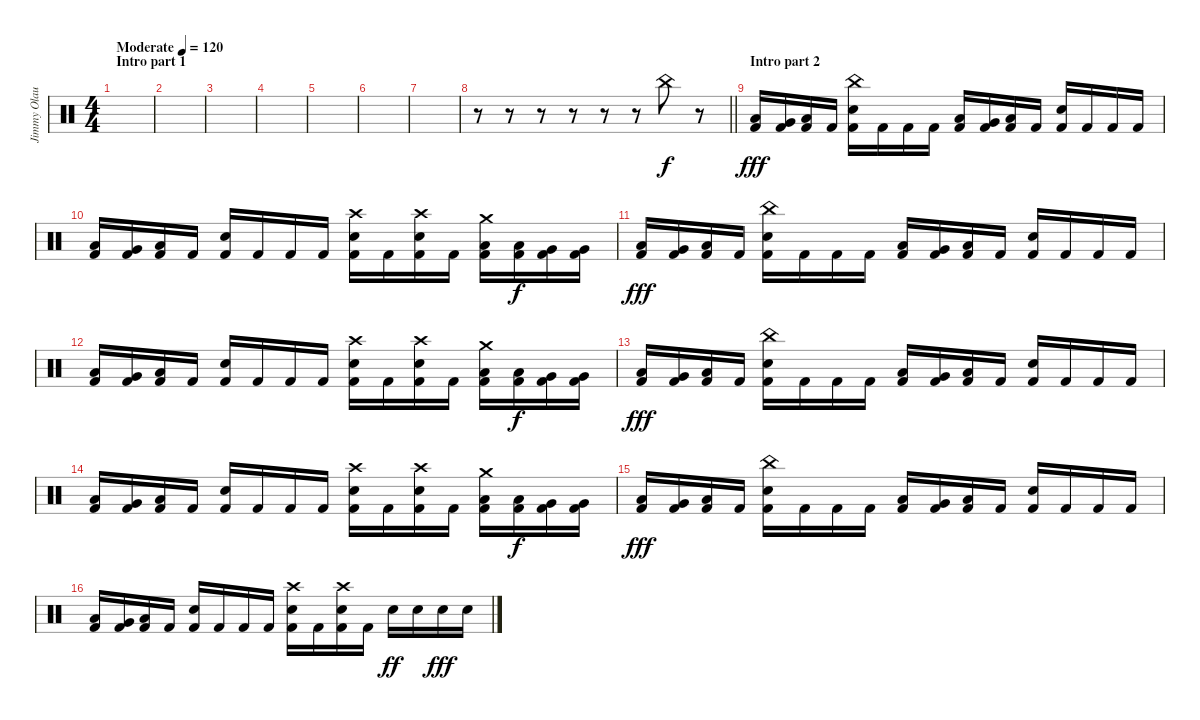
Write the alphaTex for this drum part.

\track ("Jimmy Olausson" "Jimmy Olau") {instrument percussion}
\staff {score}
\articulation defaults
\ts (4 4)
\section ("" "Intro part 1")
\tempo (120 "Moderate")
\clef neutral
\ks c
|
|
|
|
|
|
|
\barLineRight lightlight
r.8 r.8 r.8 r.8 r.8 r.8 "China (hit)".8 r.8 |
\section ("" "Intro part 2")
("Low Tom (hit)" "Kick (hit) 2").16{dy fff} ("Very Low Tom (hit)" "Kick (hit) 2").16 ("Low Floor Tom (hit)" "Kick (hit) 2").16 "Kick (hit) 2".16 ("China (hit)" "Snare (hit) 2" "Kick (hit) 2").16 "Kick (hit) 2".16 "Kick (hit) 2".16 "Kick (hit) 2".16 ("Low Tom (hit)" "Kick (hit) 2").16 ("Very Low Tom (hit)" "Kick (hit) 2").16 ("Low Floor Tom (hit)" "Kick (hit) 2").16 "Kick (hit) 2".16 ("Snare (hit) 2" "Kick (hit) 2").16 "Kick (hit) 2".16 "Kick (hit) 2".16 "Kick (hit) 2".16 |
("Low Tom (hit)" "Kick (hit) 2").16 ("Very Low Tom (hit)" "Kick (hit) 2").16 ("Low Floor Tom (hit)" "Kick (hit) 2").16 "Kick (hit) 2".16 ("Snare (hit) 2" "Kick (hit) 2").16 "Kick (hit) 2".16 "Kick (hit) 2".16 "Kick (hit) 2".16 ("Crash high (hit)" "Snare (hit) 2" "Kick (hit) 2").16 "Kick (hit) 2".16 ("Crash high (hit)" "Snare (hit) 2" "Kick (hit) 2").16 "Kick (hit) 2".16 ("Crash medium (hit)" "Low Tom (hit)" "Kick (hit) 2").16 ("Low Tom (hit)" "Kick (hit) 2").16{dy f} ("Very Low Tom (hit)" "Kick (hit) 2").16 ("Very Low Tom (hit)" "Kick (hit) 2").16 |
("Low Tom (hit)" "Kick (hit) 2").16{dy fff} ("Very Low Tom (hit)" "Kick (hit) 2").16 ("Low Floor Tom (hit)" "Kick (hit) 2").16 "Kick (hit) 2".16 ("China (hit)" "Snare (hit) 2" "Kick (hit) 2").16 "Kick (hit) 2".16 "Kick (hit) 2".16 "Kick (hit) 2".16 ("Low Tom (hit)" "Kick (hit) 2").16 ("Very Low Tom (hit)" "Kick (hit) 2").16 ("Low Floor Tom (hit)" "Kick (hit) 2").16 "Kick (hit) 2".16 ("Snare (hit) 2" "Kick (hit) 2").16 "Kick (hit) 2".16 "Kick (hit) 2".16 "Kick (hit) 2".16 |
("Low Tom (hit)" "Kick (hit) 2").16 ("Very Low Tom (hit)" "Kick (hit) 2").16 ("Low Floor Tom (hit)" "Kick (hit) 2").16 "Kick (hit) 2".16 ("Snare (hit) 2" "Kick (hit) 2").16 "Kick (hit) 2".16 "Kick (hit) 2".16 "Kick (hit) 2".16 ("Crash high (hit)" "Snare (hit) 2" "Kick (hit) 2").16 "Kick (hit) 2".16 ("Crash high (hit)" "Snare (hit) 2" "Kick (hit) 2").16 "Kick (hit) 2".16 ("Crash medium (hit)" "Low Tom (hit)" "Kick (hit) 2").16 ("Low Tom (hit)" "Kick (hit) 2").16{dy f} ("Very Low Tom (hit)" "Kick (hit) 2").16 ("Very Low Tom (hit)" "Kick (hit) 2").16 |
("Low Tom (hit)" "Kick (hit) 2").16{dy fff} ("Very Low Tom (hit)" "Kick (hit) 2").16 ("Low Floor Tom (hit)" "Kick (hit) 2").16 "Kick (hit) 2".16 ("China (hit)" "Snare (hit) 2" "Kick (hit) 2").16 "Kick (hit) 2".16 "Kick (hit) 2".16 "Kick (hit) 2".16 ("Low Tom (hit)" "Kick (hit) 2").16 ("Very Low Tom (hit)" "Kick (hit) 2").16 ("Low Floor Tom (hit)" "Kick (hit) 2").16 "Kick (hit) 2".16 ("Snare (hit) 2" "Kick (hit) 2").16 "Kick (hit) 2".16 "Kick (hit) 2".16 "Kick (hit) 2".16 |
("Low Tom (hit)" "Kick (hit) 2").16 ("Very Low Tom (hit)" "Kick (hit) 2").16 ("Low Floor Tom (hit)" "Kick (hit) 2").16 "Kick (hit) 2".16 ("Snare (hit) 2" "Kick (hit) 2").16 "Kick (hit) 2".16 "Kick (hit) 2".16 "Kick (hit) 2".16 ("Crash high (hit)" "Snare (hit) 2" "Kick (hit) 2").16 "Kick (hit) 2".16 ("Crash high (hit)" "Snare (hit) 2" "Kick (hit) 2").16 "Kick (hit) 2".16 ("Crash medium (hit)" "Low Tom (hit)" "Kick (hit) 2").16 ("Low Tom (hit)" "Kick (hit) 2").16{dy f} ("Very Low Tom (hit)" "Kick (hit) 2").16 ("Very Low Tom (hit)" "Kick (hit) 2").16 |
("Low Tom (hit)" "Kick (hit) 2").16{dy fff} ("Very Low Tom (hit)" "Kick (hit) 2").16 ("Low Floor Tom (hit)" "Kick (hit) 2").16 "Kick (hit) 2".16 ("China (hit)" "Snare (hit) 2" "Kick (hit) 2").16 "Kick (hit) 2".16 "Kick (hit) 2".16 "Kick (hit) 2".16 ("Low Tom (hit)" "Kick (hit) 2").16 ("Very Low Tom (hit)" "Kick (hit) 2").16 ("Low Floor Tom (hit)" "Kick (hit) 2").16 "Kick (hit) 2".16 ("Snare (hit) 2" "Kick (hit) 2").16 "Kick (hit) 2".16 "Kick (hit) 2".16 "Kick (hit) 2".16 |
("Low Tom (hit)" "Kick (hit) 2").16 ("Very Low Tom (hit)" "Kick (hit) 2").16 ("Low Floor Tom (hit)" "Kick (hit) 2").16 "Kick (hit) 2".16 ("Snare (hit) 2" "Kick (hit) 2").16 "Kick (hit) 2".16 "Kick (hit) 2".16 "Kick (hit) 2".16 ("Crash high (hit)" "Snare (hit) 2" "Kick (hit) 2").16 "Kick (hit) 2".16 ("Crash high (hit)" "Snare (hit) 2" "Kick (hit) 2").16 "Kick (hit) 2".16 "Snare (hit) 2".16{dy ff} "Snare (hit) 2".16 "Snare (hit) 2".16{dy fff} "Snare (hit) 2".16
